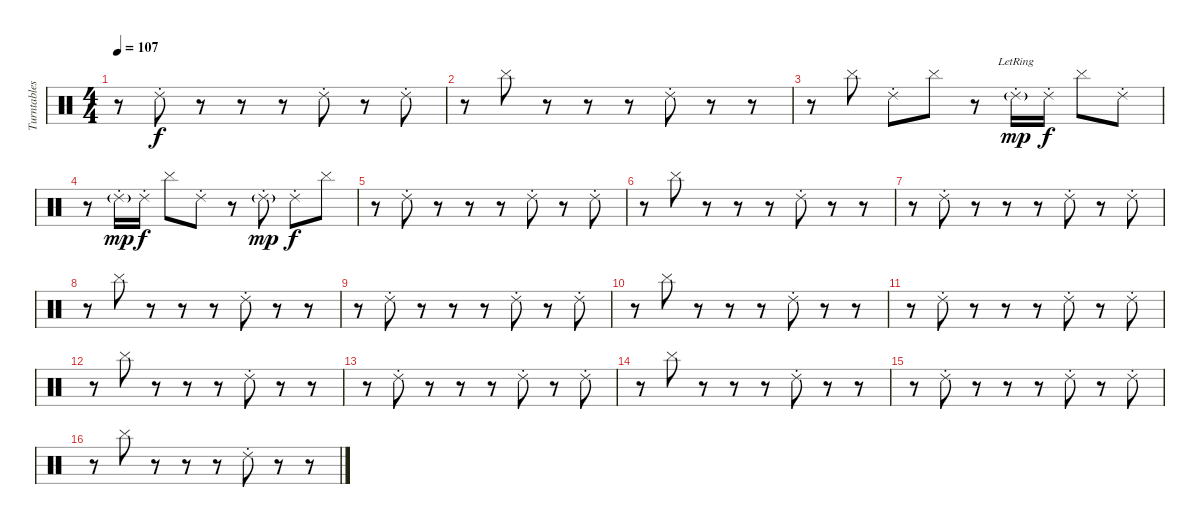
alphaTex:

\track ("Turntables" "Turntables") {instrument percussion}
\staff {score}
\articulation defaults
\ts (4 4)
\tempo 107
\clef neutral
\ks c
r.8{dy f} "Ride (choke) 2".8 r.8 r.8 r.8 "Ride (choke) 2".8 r.8 "Ride (choke) 2".8 |
r.8 "Cymbal (hit)".8 r.8 r.8 r.8 "Ride (choke) 2".8 r.8 r.8 |
r.8 "Cymbal (hit)".8 "Ride (choke) 2".8 "Cymbal (hit)".8 r.8 "Ride (choke) 2"{g lr}.16{dy mp} "Ride (choke) 2".16{dy f} "Cymbal (hit)".8 "Ride (choke) 2".8 |
r.8 "Ride (choke) 2"{g}.16{dy mp} "Ride (choke) 2".16{dy f} "Cymbal (hit)".8 "Ride (choke) 2".8 r.8 "Ride (choke) 2"{g}.8{dy mp} "Ride (choke) 2".8{dy f} "Cymbal (hit)".8 |
r.8 "Ride (choke) 2".8 r.8 r.8 r.8 "Ride (choke) 2".8 r.8 "Ride (choke) 2".8 |
r.8 "Cymbal (hit)".8 r.8 r.8 r.8 "Ride (choke) 2".8 r.8 r.8 |
r.8 "Ride (choke) 2".8 r.8 r.8 r.8 "Ride (choke) 2".8 r.8 "Ride (choke) 2".8 |
r.8 "Cymbal (hit)".8 r.8 r.8 r.8 "Ride (choke) 2".8 r.8 r.8 |
r.8 "Ride (choke) 2".8 r.8 r.8 r.8 "Ride (choke) 2".8 r.8 "Ride (choke) 2".8 |
r.8 "Cymbal (hit)".8 r.8 r.8 r.8 "Ride (choke) 2".8 r.8 r.8 |
r.8 "Ride (choke) 2".8 r.8 r.8 r.8 "Ride (choke) 2".8 r.8 "Ride (choke) 2".8 |
r.8 "Cymbal (hit)".8 r.8 r.8 r.8 "Ride (choke) 2".8 r.8 r.8 |
r.8 "Ride (choke) 2".8 r.8 r.8 r.8 "Ride (choke) 2".8 r.8 "Ride (choke) 2".8 |
r.8 "Cymbal (hit)".8 r.8 r.8 r.8 "Ride (choke) 2".8 r.8 r.8 |
r.8 "Ride (choke) 2".8 r.8 r.8 r.8 "Ride (choke) 2".8 r.8 "Ride (choke) 2".8 |
r.8 "Cymbal (hit)".8 r.8 r.8 r.8 "Ride (choke) 2".8 r.8 r.8
